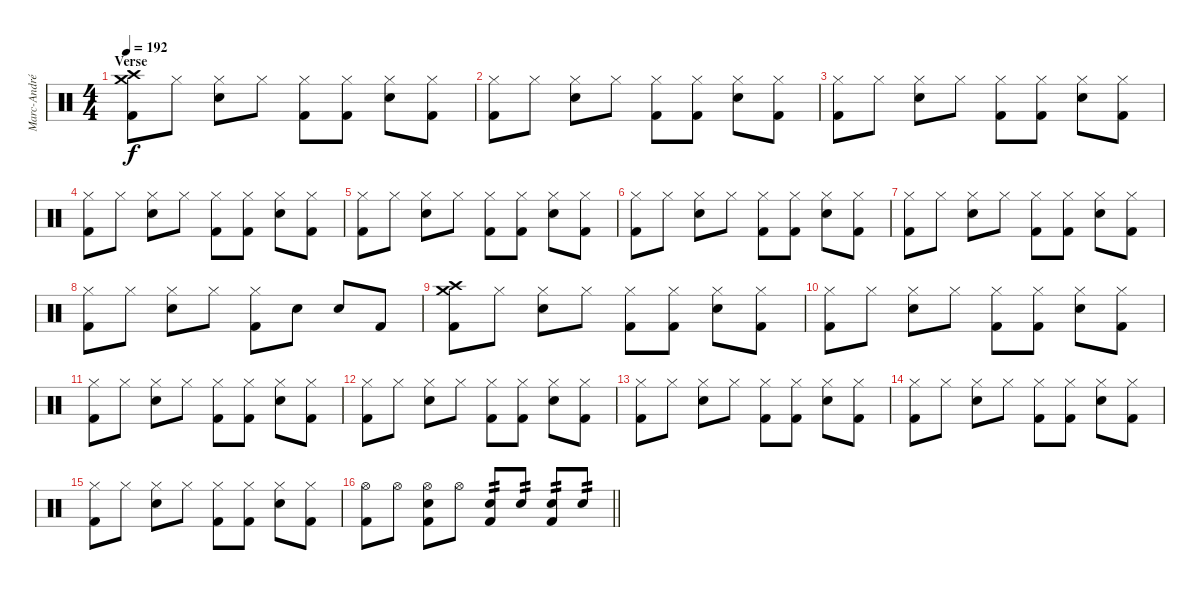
\track ("Marc-André Barabé" "Marc-André") {instrument percussion}
\staff {score}
\articulation defaults
\ts (4 4)
\section ("" "Verse")
\tempo 192
\clef neutral
\ks c
("Crash high (hit)" "Crash medium (hit)" "Kick (hit) 2").8{dy f} "Hi-Hat (closed)".8 ("Hi-Hat (closed)" "Electric Snare (hit)").8 "Hi-Hat (closed)".8 ("Hi-Hat (closed)" "Kick (hit) 2").8 ("Hi-Hat (closed)" "Kick (hit) 2").8 ("Hi-Hat (closed)" "Electric Snare (hit)").8 ("Hi-Hat (closed)" "Kick (hit) 2").8 |
("Hi-Hat (closed)" "Kick (hit) 2").8 "Hi-Hat (closed)".8 ("Hi-Hat (closed)" "Electric Snare (hit)").8 "Hi-Hat (closed)".8 ("Hi-Hat (closed)" "Kick (hit) 2").8 ("Hi-Hat (closed)" "Kick (hit) 2").8 ("Hi-Hat (closed)" "Electric Snare (hit)").8 ("Hi-Hat (closed)" "Kick (hit) 2").8 |
("Hi-Hat (closed)" "Kick (hit) 2").8 "Hi-Hat (closed)".8 ("Hi-Hat (closed)" "Electric Snare (hit)").8 "Hi-Hat (closed)".8 ("Hi-Hat (closed)" "Kick (hit) 2").8 ("Hi-Hat (closed)" "Kick (hit) 2").8 ("Hi-Hat (closed)" "Electric Snare (hit)").8 ("Hi-Hat (closed)" "Kick (hit) 2").8 |
("Hi-Hat (closed)" "Kick (hit) 2").8 "Hi-Hat (closed)".8 ("Hi-Hat (closed)" "Electric Snare (hit)").8 "Hi-Hat (closed)".8 ("Hi-Hat (closed)" "Kick (hit) 2").8 ("Hi-Hat (closed)" "Kick (hit) 2").8 ("Hi-Hat (closed)" "Electric Snare (hit)").8 ("Hi-Hat (closed)" "Kick (hit) 2").8 |
("Hi-Hat (closed)" "Kick (hit) 2").8 "Hi-Hat (closed)".8 ("Hi-Hat (closed)" "Electric Snare (hit)").8 "Hi-Hat (closed)".8 ("Hi-Hat (closed)" "Kick (hit) 2").8 ("Hi-Hat (closed)" "Kick (hit) 2").8 ("Hi-Hat (closed)" "Electric Snare (hit)").8 ("Hi-Hat (closed)" "Kick (hit) 2").8 |
("Hi-Hat (closed)" "Kick (hit) 2").8 "Hi-Hat (closed)".8 ("Hi-Hat (closed)" "Electric Snare (hit)").8 "Hi-Hat (closed)".8 ("Hi-Hat (closed)" "Kick (hit) 2").8 ("Hi-Hat (closed)" "Kick (hit) 2").8 ("Hi-Hat (closed)" "Electric Snare (hit)").8 ("Hi-Hat (closed)" "Kick (hit) 2").8 |
("Hi-Hat (closed)" "Kick (hit) 2").8 "Hi-Hat (closed)".8 ("Hi-Hat (closed)" "Electric Snare (hit)").8 "Hi-Hat (closed)".8 ("Hi-Hat (closed)" "Kick (hit) 2").8 ("Hi-Hat (closed)" "Kick (hit) 2").8 ("Hi-Hat (closed)" "Electric Snare (hit)").8 ("Hi-Hat (closed)" "Kick (hit) 2").8 |
("Hi-Hat (closed)" "Kick (hit) 2").8 "Hi-Hat (closed)".8 ("Hi-Hat (closed)" "Electric Snare (hit)").8 "Hi-Hat (closed)".8 ("Hi-Hat (closed)" "Kick (hit) 2").8 "Electric Snare (hit)".8 "Electric Snare (hit)".8 "Kick (hit) 2".8 |
("Crash high (hit)" "Crash medium (hit)" "Kick (hit) 2").8 "Hi-Hat (closed)".8 ("Hi-Hat (closed)" "Electric Snare (hit)").8 "Hi-Hat (closed)".8 ("Hi-Hat (closed)" "Kick (hit) 2").8 ("Hi-Hat (closed)" "Kick (hit) 2").8 ("Hi-Hat (closed)" "Electric Snare (hit)").8 ("Hi-Hat (closed)" "Kick (hit) 2").8 |
("Hi-Hat (closed)" "Kick (hit) 2").8 "Hi-Hat (closed)".8 ("Hi-Hat (closed)" "Electric Snare (hit)").8 "Hi-Hat (closed)".8 ("Hi-Hat (closed)" "Kick (hit) 2").8 ("Hi-Hat (closed)" "Kick (hit) 2").8 ("Hi-Hat (closed)" "Electric Snare (hit)").8 ("Hi-Hat (closed)" "Kick (hit) 2").8 |
("Hi-Hat (closed)" "Kick (hit) 2").8 "Hi-Hat (closed)".8 ("Hi-Hat (closed)" "Electric Snare (hit)").8 "Hi-Hat (closed)".8 ("Hi-Hat (closed)" "Kick (hit) 2").8 ("Hi-Hat (closed)" "Kick (hit) 2").8 ("Hi-Hat (closed)" "Electric Snare (hit)").8 ("Hi-Hat (closed)" "Kick (hit) 2").8 |
("Hi-Hat (closed)" "Kick (hit) 2").8 "Hi-Hat (closed)".8 ("Hi-Hat (closed)" "Electric Snare (hit)").8 "Hi-Hat (closed)".8 ("Hi-Hat (closed)" "Kick (hit) 2").8 ("Hi-Hat (closed)" "Kick (hit) 2").8 ("Hi-Hat (closed)" "Electric Snare (hit)").8 ("Hi-Hat (closed)" "Kick (hit) 2").8 |
("Hi-Hat (closed)" "Kick (hit) 2").8 "Hi-Hat (closed)".8 ("Hi-Hat (closed)" "Electric Snare (hit)").8 "Hi-Hat (closed)".8 ("Hi-Hat (closed)" "Kick (hit) 2").8 ("Hi-Hat (closed)" "Kick (hit) 2").8 ("Hi-Hat (closed)" "Electric Snare (hit)").8 ("Hi-Hat (closed)" "Kick (hit) 2").8 |
("Hi-Hat (closed)" "Kick (hit) 2").8 "Hi-Hat (closed)".8 ("Hi-Hat (closed)" "Electric Snare (hit)").8 "Hi-Hat (closed)".8 ("Hi-Hat (closed)" "Kick (hit) 2").8 ("Hi-Hat (closed)" "Kick (hit) 2").8 ("Hi-Hat (closed)" "Electric Snare (hit)").8 ("Hi-Hat (closed)" "Kick (hit) 2").8 |
("Hi-Hat (closed)" "Kick (hit) 2").8 "Hi-Hat (closed)".8 ("Hi-Hat (closed)" "Electric Snare (hit)").8 "Hi-Hat (closed)".8 ("Hi-Hat (closed)" "Kick (hit) 2").8 ("Hi-Hat (closed)" "Kick (hit) 2").8 ("Hi-Hat (closed)" "Electric Snare (hit)").8 ("Hi-Hat (closed)" "Kick (hit) 2").8 |
\barLineRight lightlight
("Hi-Hat (open)" "Kick (hit) 2").8 "Hi-Hat (open)".8 ("Hi-Hat (open)" "Electric Snare (hit)" "Kick (hit) 2").8 "Hi-Hat (open)".8 ("Electric Snare (hit)" "Kick (hit) 2").8{tp 2} "Electric Snare (hit)".8{tp 2} ("Electric Snare (hit)" "Kick (hit) 2").8{tp 2} "Electric Snare (hit)".8{tp 2}
